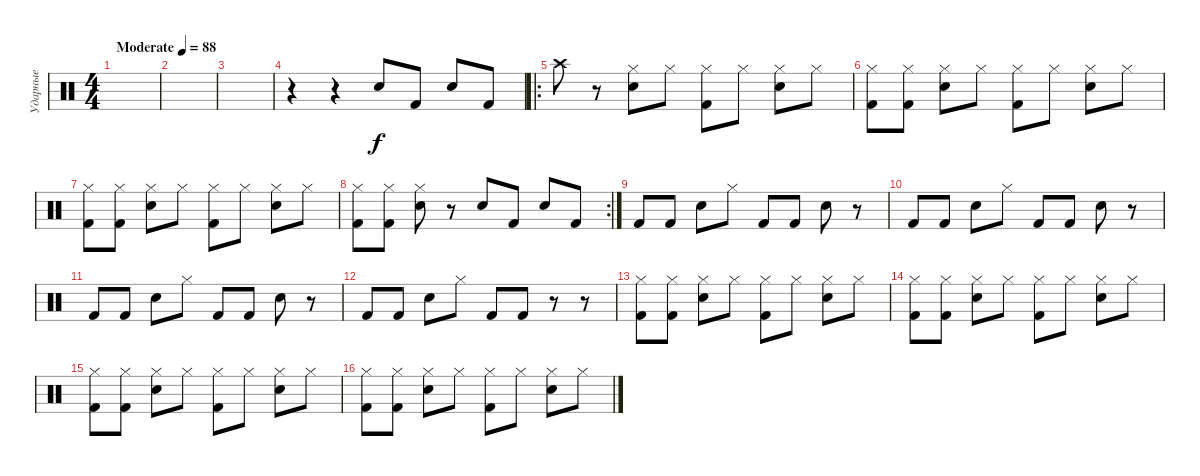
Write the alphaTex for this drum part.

\track ("Ударные" "Ударные") {instrument percussion}
\staff {score}
\articulation defaults
\ts (4 4)
\tempo (88 "Moderate")
\clef neutral
\ks c
|
|
|
r.4 r.4 "Snare (hit) 2".8 "Kick (hit) 2".8 "Snare (hit) 2".8 "Kick (hit) 2".8 |
\ro "Crash high (hit)".8
r.8 ("Hi-Hat (closed)" "Snare (hit) 2").8 "Hi-Hat (closed)".8 ("Hi-Hat (closed)" "Kick (hit) 2").8 "Hi-Hat (closed)".8 ("Hi-Hat (closed)" "Snare (hit) 2").8 "Hi-Hat (closed)".8 |
("Hi-Hat (closed)" "Kick (hit) 2").8 ("Hi-Hat (closed)" "Kick (hit) 2").8 ("Hi-Hat (closed)" "Snare (hit) 2").8 "Hi-Hat (closed)".8 ("Hi-Hat (closed)" "Kick (hit) 2").8 "Hi-Hat (closed)".8 ("Hi-Hat (closed)" "Snare (hit) 2").8 "Hi-Hat (closed)".8 |
("Hi-Hat (closed)" "Kick (hit) 2").8 ("Hi-Hat (closed)" "Kick (hit) 2").8 ("Hi-Hat (closed)" "Snare (hit) 2").8 "Hi-Hat (closed)".8 ("Hi-Hat (closed)" "Kick (hit) 2").8 "Hi-Hat (closed)".8 ("Hi-Hat (closed)" "Snare (hit) 2").8 "Hi-Hat (closed)".8 |
\rc 2
("Hi-Hat (closed)" "Kick (hit) 2").8 ("Hi-Hat (closed)" "Kick (hit) 2").8 ("Hi-Hat (closed)" "Snare (hit) 2").8 r.8 "Snare (hit) 2".8 "Kick (hit) 2".8 "Snare (hit) 2".8 "Kick (hit) 2".8 |
"Kick (hit) 2".8 "Kick (hit) 2".8 "Snare (hit) 2".8 "Hi-Hat (closed)".8 "Kick (hit) 2".8 "Kick (hit) 2".8 "Snare (hit) 2".8 r.8 |
"Kick (hit) 2".8 "Kick (hit) 2".8 "Snare (hit) 2".8 "Hi-Hat (closed)".8 "Kick (hit) 2".8 "Kick (hit) 2".8 "Snare (hit) 2".8 r.8 |
"Kick (hit) 2".8 "Kick (hit) 2".8 "Snare (hit) 2".8 "Hi-Hat (closed)".8 "Kick (hit) 2".8 "Kick (hit) 2".8 "Snare (hit) 2".8 r.8 |
"Kick (hit) 2".8 "Kick (hit) 2".8 "Snare (hit) 2".8 "Hi-Hat (closed)".8 "Kick (hit) 2".8 "Kick (hit) 2".8 r.8 r.8 |
("Hi-Hat (closed)" "Kick (hit) 2").8 ("Hi-Hat (closed)" "Kick (hit) 2").8 ("Hi-Hat (closed)" "Snare (hit) 2").8 "Hi-Hat (closed)".8 ("Hi-Hat (closed)" "Kick (hit) 2").8 "Hi-Hat (closed)".8 ("Hi-Hat (closed)" "Snare (hit) 2").8 "Hi-Hat (closed)".8 |
("Hi-Hat (closed)" "Kick (hit) 2").8 ("Hi-Hat (closed)" "Kick (hit) 2").8 ("Hi-Hat (closed)" "Snare (hit) 2").8 "Hi-Hat (closed)".8 ("Hi-Hat (closed)" "Kick (hit) 2").8 "Hi-Hat (closed)".8 ("Hi-Hat (closed)" "Snare (hit) 2").8 "Hi-Hat (closed)".8 |
("Hi-Hat (closed)" "Kick (hit) 2").8 ("Hi-Hat (closed)" "Kick (hit) 2").8 ("Hi-Hat (closed)" "Snare (hit) 2").8 "Hi-Hat (closed)".8 ("Hi-Hat (closed)" "Kick (hit) 2").8 "Hi-Hat (closed)".8 ("Hi-Hat (closed)" "Snare (hit) 2").8 "Hi-Hat (closed)".8 |
("Hi-Hat (closed)" "Kick (hit) 2").8 ("Hi-Hat (closed)" "Kick (hit) 2").8 ("Hi-Hat (closed)" "Snare (hit) 2").8 "Hi-Hat (closed)".8 ("Hi-Hat (closed)" "Kick (hit) 2").8 "Hi-Hat (closed)".8 ("Hi-Hat (closed)" "Snare (hit) 2").8 "Hi-Hat (closed)".8
